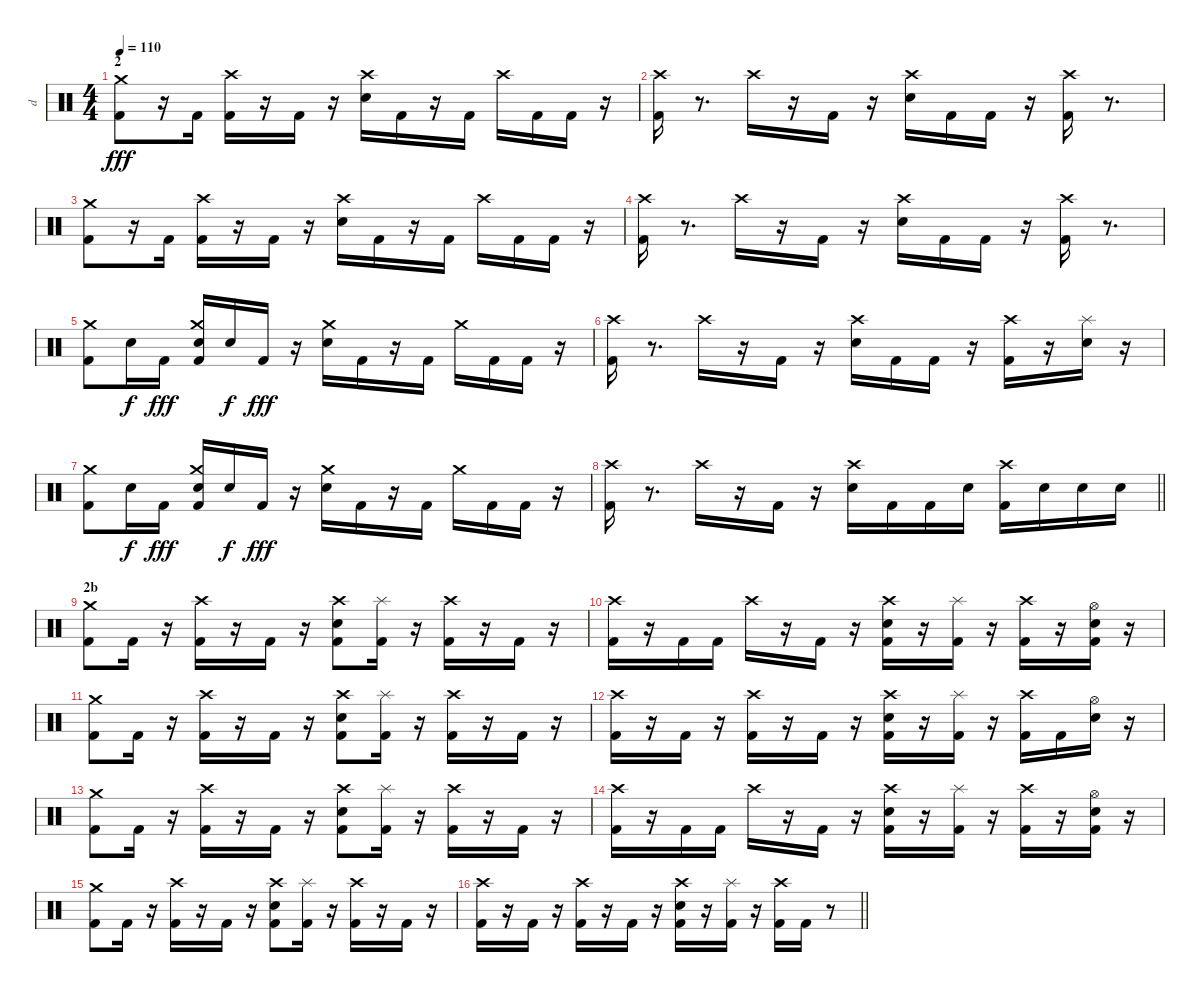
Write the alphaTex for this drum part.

\track ("d" "d") {instrument percussion}
\staff {score}
\articulation defaults
\ts (4 4)
\section ("" "2")
\tempo 110
\clef neutral
\ks c
("Kick (hit) 2" "Crash medium (hit)").8{dy fff} r.16 "Kick (hit) 2".16 ("Kick (hit) 2" "Crash high (hit)").16 r.16 "Kick (hit) 2".16 r.16 ("Electric Snare (hit)" "Crash high (hit)").16 "Kick (hit) 2".16 r.16 "Kick (hit) 2".16 "Crash high (hit)".16 "Kick (hit) 2".16 "Kick (hit) 2".16 r.16 |
("Crash high (hit)" "Kick (hit) 2").16 r.8{d} "Crash high (hit)".16 r.16 "Kick (hit) 2".16 r.16 ("Electric Snare (hit)" "Crash high (hit)").16 "Kick (hit) 2".16 "Kick (hit) 2".16 r.16 ("Kick (hit) 2" "Crash high (hit)").16 r.8{d} |
("Crash medium (hit)" "Kick (hit) 2").8 r.16 "Kick (hit) 2".16 ("Crash high (hit)" "Kick (hit) 2").16 r.16 "Kick (hit) 2".16 r.16 ("Crash high (hit)" "Electric Snare (hit)").16 "Kick (hit) 2".16 r.16 "Kick (hit) 2".16 "Crash high (hit)".16 "Kick (hit) 2".16 "Kick (hit) 2".16 r.16 |
("Kick (hit) 2" "Crash high (hit)").16 r.8{d} "Crash high (hit)".16 r.16 "Kick (hit) 2".16 r.16 ("Electric Snare (hit)" "Crash high (hit)").16 "Kick (hit) 2".16 "Kick (hit) 2".16 r.16 ("Crash high (hit)" "Kick (hit) 2").16 r.8{d} |
("Kick (hit) 2" "Crash medium (hit)").8 "Electric Snare (hit)".16{dy f} "Kick (hit) 2".16{dy fff} ("Electric Snare (hit)" "Crash medium (hit)" "Kick (hit) 2").16 "Electric Snare (hit)".16{dy f} "Kick (hit) 2".16{dy fff} r.16 ("Electric Snare (hit)" "Crash medium (hit)").16 "Kick (hit) 2".16 r.16 "Kick (hit) 2".16 "Crash medium (hit)".16 "Kick (hit) 2".16 "Kick (hit) 2".16 r.16 |
("Kick (hit) 2" "Crash high (hit)").16 r.8{d} "Crash high (hit)".16 r.16 "Kick (hit) 2".16 r.16 ("Crash high (hit)" "Electric Snare (hit)").16 "Kick (hit) 2".16 "Kick (hit) 2".16 r.16 ("Crash high (hit)" "Kick (hit) 2").16 r.16 ("Electric Snare (hit)" "Splash (hit)").16 r.16 |
("Kick (hit) 2" "Crash medium (hit)").8 "Electric Snare (hit)".16{dy f} "Kick (hit) 2".16{dy fff} ("Electric Snare (hit)" "Kick (hit) 2" "Crash medium (hit)").16 "Electric Snare (hit)".16{dy f} "Kick (hit) 2".16{dy fff} r.16 ("Crash medium (hit)" "Electric Snare (hit)").16 "Kick (hit) 2".16 r.16 "Kick (hit) 2".16 "Crash medium (hit)".16 "Kick (hit) 2".16 "Kick (hit) 2".16 r.16 |
\barLineRight lightlight
("Kick (hit) 2" "Crash high (hit)").16 r.8{d} "Crash high (hit)".16 r.16 "Kick (hit) 2".16 r.16 ("Electric Snare (hit)" "Crash high (hit)").16 "Kick (hit) 2".16 "Kick (hit) 2".16 "Electric Snare (hit)".16 ("Kick (hit) 2" "Crash high (hit)").16 "Electric Snare (hit)".16 "Electric Snare (hit)".16 "Electric Snare (hit)".16 |
\section ("" "2b")
("Crash medium (hit)" "Kick (hit) 2").8 "Kick (hit) 2".16 r.16 ("Crash high (hit)" "Kick (hit) 2").16 r.16 "Kick (hit) 2".16 r.16 ("Electric Snare (hit)" "Kick (hit) 2" "Crash high (hit)").8 ("Splash (hit)" "Kick (hit) 2").16 r.16 ("Kick (hit) 2" "Crash high (hit)").16 r.16 "Kick (hit) 2".16 r.16 |
("Crash high (hit)" "Kick (hit) 2").16 r.16 "Kick (hit) 2".16 "Kick (hit) 2".16 "Crash high (hit)".16 r.16 "Kick (hit) 2".16 r.16 ("Kick (hit) 2" "Electric Snare (hit)" "Crash high (hit)").16 r.16 ("Kick (hit) 2" "Splash (hit)").16 r.16 ("Crash high (hit)" "Kick (hit) 2").16 r.16 ("Hi-Hat (open)" "Kick (hit) 2" "Electric Snare (hit)").16 r.16 |
("Kick (hit) 2" "Crash medium (hit)").8 "Kick (hit) 2".16 r.16 ("Kick (hit) 2" "Crash high (hit)").16 r.16 "Kick (hit) 2".16 r.16 ("Crash high (hit)" "Kick (hit) 2" "Electric Snare (hit)").8 ("Kick (hit) 2" "Splash (hit)").16 r.16 ("Kick (hit) 2" "Crash high (hit)").16 r.16 "Kick (hit) 2".16 r.16 |
("Kick (hit) 2" "Crash high (hit)").16 r.16 "Kick (hit) 2".16 r.16 ("Kick (hit) 2" "Crash high (hit)").16 r.16 "Kick (hit) 2".16 r.16 ("Kick (hit) 2" "Electric Snare (hit)" "Crash high (hit)").16 r.16 ("Kick (hit) 2" "Splash (hit)").16 r.16 ("Crash high (hit)" "Kick (hit) 2").16 "Kick (hit) 2".16 ("Hi-Hat (open)" "Electric Snare (hit)").16 r.16 |
("Kick (hit) 2" "Crash medium (hit)").8 "Kick (hit) 2".16 r.16 ("Crash high (hit)" "Kick (hit) 2").16 r.16 "Kick (hit) 2".16 r.16 ("Kick (hit) 2" "Electric Snare (hit)" "Crash high (hit)").8 ("Kick (hit) 2" "Splash (hit)").16 r.16 ("Crash high (hit)" "Kick (hit) 2").16 r.16 "Kick (hit) 2".16 r.16 |
("Crash high (hit)" "Kick (hit) 2").16 r.16 "Kick (hit) 2".16 "Kick (hit) 2".16 "Crash high (hit)".16 r.16 "Kick (hit) 2".16 r.16 ("Electric Snare (hit)" "Kick (hit) 2" "Crash high (hit)").16 r.16 ("Splash (hit)" "Kick (hit) 2").16 r.16 ("Kick (hit) 2" "Crash high (hit)").16 r.16 ("Kick (hit) 2" "Electric Snare (hit)" "Hi-Hat (open)").16 r.16 |
("Kick (hit) 2" "Crash medium (hit)").8 "Kick (hit) 2".16 r.16 ("Kick (hit) 2" "Crash high (hit)").16 r.16 "Kick (hit) 2".16 r.16 ("Kick (hit) 2" "Electric Snare (hit)" "Crash high (hit)").8 ("Kick (hit) 2" "Splash (hit)").16 r.16 ("Crash high (hit)" "Kick (hit) 2").16 r.16 "Kick (hit) 2".16 r.16 |
\barLineRight lightlight
("Crash high (hit)" "Kick (hit) 2").16 r.16 "Kick (hit) 2".16 r.16 ("Crash high (hit)" "Kick (hit) 2").16 r.16 "Kick (hit) 2".16 r.16 ("Electric Snare (hit)" "Kick (hit) 2" "Crash high (hit)").16 r.16 ("Splash (hit)" "Kick (hit) 2").16 r.16 ("Kick (hit) 2" "Crash high (hit)").16 "Kick (hit) 2".16 r.8
